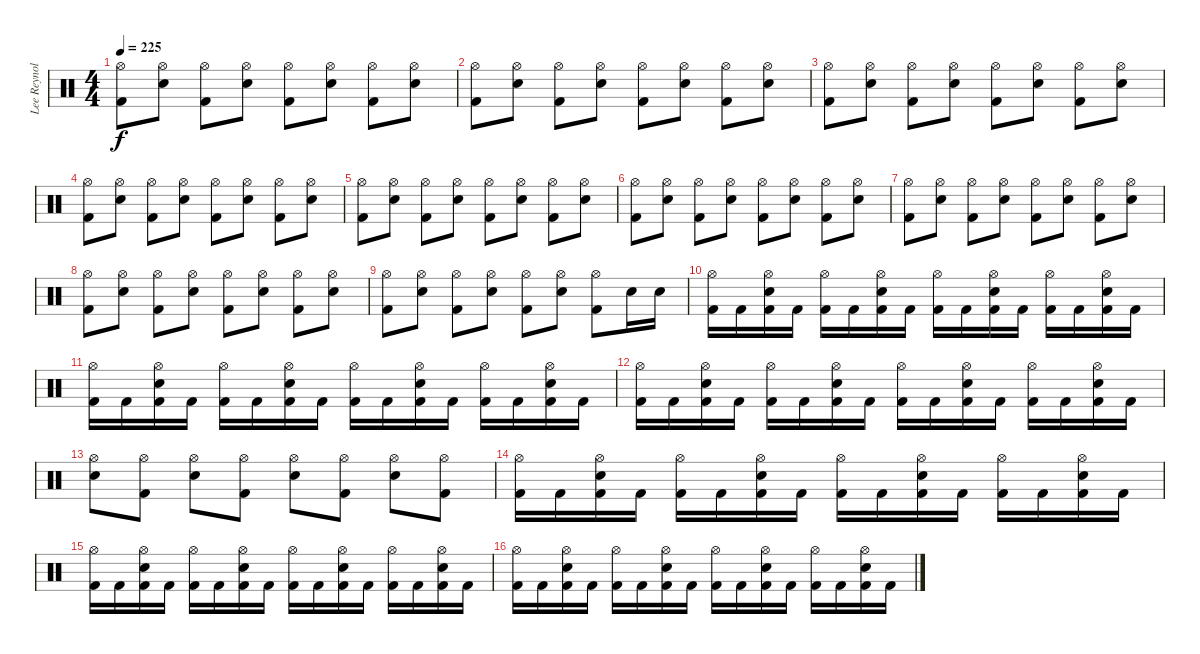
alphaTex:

\track ("Lee Reynolds" "Lee Reynol") {instrument percussion}
\staff {score}
\articulation defaults
\ts (4 4)
\tempo 225
\clef neutral
\ks c
("Hi-Hat (open)" "Kick (hit) 2").8{dy f} ("Hi-Hat (open)" "Snare (hit) 2").8 ("Hi-Hat (open)" "Kick (hit) 2").8 ("Hi-Hat (open)" "Snare (hit) 2").8 ("Hi-Hat (open)" "Kick (hit) 2").8 ("Hi-Hat (open)" "Snare (hit) 2").8 ("Hi-Hat (open)" "Kick (hit) 2").8 ("Hi-Hat (open)" "Snare (hit) 2").8 |
("Hi-Hat (open)" "Kick (hit) 2").8 ("Hi-Hat (open)" "Snare (hit) 2").8 ("Hi-Hat (open)" "Kick (hit) 2").8 ("Hi-Hat (open)" "Snare (hit) 2").8 ("Hi-Hat (open)" "Kick (hit) 2").8 ("Hi-Hat (open)" "Snare (hit) 2").8 ("Hi-Hat (open)" "Kick (hit) 2").8 ("Hi-Hat (open)" "Snare (hit) 2").8 |
("Hi-Hat (open)" "Kick (hit) 2").8 ("Hi-Hat (open)" "Snare (hit) 2").8 ("Hi-Hat (open)" "Kick (hit) 2").8 ("Hi-Hat (open)" "Snare (hit) 2").8 ("Hi-Hat (open)" "Kick (hit) 2").8 ("Hi-Hat (open)" "Snare (hit) 2").8 ("Hi-Hat (open)" "Kick (hit) 2").8 ("Hi-Hat (open)" "Snare (hit) 2").8 |
("Hi-Hat (open)" "Kick (hit) 2").8 ("Hi-Hat (open)" "Snare (hit) 2").8 ("Hi-Hat (open)" "Kick (hit) 2").8 ("Hi-Hat (open)" "Snare (hit) 2").8 ("Hi-Hat (open)" "Kick (hit) 2").8 ("Hi-Hat (open)" "Snare (hit) 2").8 ("Hi-Hat (open)" "Kick (hit) 2").8 ("Hi-Hat (open)" "Snare (hit) 2").8 |
("Hi-Hat (open)" "Kick (hit) 2").8 ("Hi-Hat (open)" "Snare (hit) 2").8 ("Hi-Hat (open)" "Kick (hit) 2").8 ("Hi-Hat (open)" "Snare (hit) 2").8 ("Hi-Hat (open)" "Kick (hit) 2").8 ("Hi-Hat (open)" "Snare (hit) 2").8 ("Hi-Hat (open)" "Kick (hit) 2").8 ("Hi-Hat (open)" "Snare (hit) 2").8 |
("Hi-Hat (open)" "Kick (hit) 2").8 ("Hi-Hat (open)" "Snare (hit) 2").8 ("Hi-Hat (open)" "Kick (hit) 2").8 ("Hi-Hat (open)" "Snare (hit) 2").8 ("Hi-Hat (open)" "Kick (hit) 2").8 ("Hi-Hat (open)" "Snare (hit) 2").8 ("Hi-Hat (open)" "Kick (hit) 2").8 ("Hi-Hat (open)" "Snare (hit) 2").8 |
("Hi-Hat (open)" "Kick (hit) 2").8 ("Hi-Hat (open)" "Snare (hit) 2").8 ("Hi-Hat (open)" "Kick (hit) 2").8 ("Hi-Hat (open)" "Snare (hit) 2").8 ("Hi-Hat (open)" "Kick (hit) 2").8 ("Hi-Hat (open)" "Snare (hit) 2").8 ("Hi-Hat (open)" "Kick (hit) 2").8 ("Hi-Hat (open)" "Snare (hit) 2").8 |
("Hi-Hat (open)" "Kick (hit) 2").8 ("Hi-Hat (open)" "Snare (hit) 2").8 ("Hi-Hat (open)" "Kick (hit) 2").8 ("Hi-Hat (open)" "Snare (hit) 2").8 ("Hi-Hat (open)" "Kick (hit) 2").8 ("Hi-Hat (open)" "Snare (hit) 2").8 ("Hi-Hat (open)" "Kick (hit) 2").8 ("Hi-Hat (open)" "Snare (hit) 2").8 |
("Hi-Hat (open)" "Kick (hit) 2").8 ("Hi-Hat (open)" "Snare (hit) 2").8 ("Hi-Hat (open)" "Kick (hit) 2").8 ("Hi-Hat (open)" "Snare (hit) 2").8 ("Hi-Hat (open)" "Kick (hit) 2").8 ("Hi-Hat (open)" "Snare (hit) 2").8 ("Hi-Hat (open)" "Kick (hit) 2").8 "Snare (hit) 2".16 "Snare (hit) 2".16 |
("Hi-Hat (open)" "Kick (hit) 2").16 "Kick (hit) 2".16 ("Hi-Hat (open)" "Snare (hit) 2" "Kick (hit) 2").16 "Kick (hit) 2".16 ("Hi-Hat (open)" "Kick (hit) 2").16 "Kick (hit) 2".16 ("Hi-Hat (open)" "Snare (hit) 2" "Kick (hit) 2").16 "Kick (hit) 2".16 ("Hi-Hat (open)" "Kick (hit) 2").16 "Kick (hit) 2".16 ("Hi-Hat (open)" "Snare (hit) 2" "Kick (hit) 2").16 "Kick (hit) 2".16 ("Hi-Hat (open)" "Kick (hit) 2").16 "Kick (hit) 2".16 ("Hi-Hat (open)" "Snare (hit) 2" "Kick (hit) 2").16 "Kick (hit) 2".16 |
("Hi-Hat (open)" "Kick (hit) 2").16 "Kick (hit) 2".16 ("Hi-Hat (open)" "Snare (hit) 2" "Kick (hit) 2").16 "Kick (hit) 2".16 ("Hi-Hat (open)" "Kick (hit) 2").16 "Kick (hit) 2".16 ("Hi-Hat (open)" "Snare (hit) 2" "Kick (hit) 2").16 "Kick (hit) 2".16 ("Hi-Hat (open)" "Kick (hit) 2").16 "Kick (hit) 2".16 ("Hi-Hat (open)" "Snare (hit) 2" "Kick (hit) 2").16 "Kick (hit) 2".16 ("Hi-Hat (open)" "Kick (hit) 2").16 "Kick (hit) 2".16 ("Hi-Hat (open)" "Snare (hit) 2" "Kick (hit) 2").16 "Kick (hit) 2".16 |
("Hi-Hat (open)" "Kick (hit) 2").16 "Kick (hit) 2".16 ("Hi-Hat (open)" "Snare (hit) 2" "Kick (hit) 2").16 "Kick (hit) 2".16 ("Hi-Hat (open)" "Kick (hit) 2").16 "Kick (hit) 2".16 ("Hi-Hat (open)" "Snare (hit) 2" "Kick (hit) 2").16 "Kick (hit) 2".16 ("Hi-Hat (open)" "Kick (hit) 2").16 "Kick (hit) 2".16 ("Hi-Hat (open)" "Snare (hit) 2" "Kick (hit) 2").16 "Kick (hit) 2".16 ("Hi-Hat (open)" "Kick (hit) 2").16 "Kick (hit) 2".16 ("Hi-Hat (open)" "Snare (hit) 2" "Kick (hit) 2").16 "Kick (hit) 2".16 |
("Hi-Hat (open)" "Snare (hit) 2").8 ("Hi-Hat (open)" "Kick (hit) 2").8 ("Hi-Hat (open)" "Snare (hit) 2").8 ("Hi-Hat (open)" "Kick (hit) 2").8 ("Hi-Hat (open)" "Snare (hit) 2").8 ("Hi-Hat (open)" "Kick (hit) 2").8 ("Hi-Hat (open)" "Snare (hit) 2").8 ("Hi-Hat (open)" "Kick (hit) 2").8 |
("Hi-Hat (open)" "Kick (hit) 2").16 "Kick (hit) 2".16 ("Hi-Hat (open)" "Snare (hit) 2" "Kick (hit) 2").16 "Kick (hit) 2".16 ("Hi-Hat (open)" "Kick (hit) 2").16 "Kick (hit) 2".16 ("Hi-Hat (open)" "Snare (hit) 2" "Kick (hit) 2").16 "Kick (hit) 2".16 ("Hi-Hat (open)" "Kick (hit) 2").16 "Kick (hit) 2".16 ("Hi-Hat (open)" "Snare (hit) 2" "Kick (hit) 2").16 "Kick (hit) 2".16 ("Hi-Hat (open)" "Kick (hit) 2").16 "Kick (hit) 2".16 ("Hi-Hat (open)" "Snare (hit) 2" "Kick (hit) 2").16 "Kick (hit) 2".16 |
("Hi-Hat (open)" "Kick (hit) 2").16 "Kick (hit) 2".16 ("Hi-Hat (open)" "Snare (hit) 2" "Kick (hit) 2").16 "Kick (hit) 2".16 ("Hi-Hat (open)" "Kick (hit) 2").16 "Kick (hit) 2".16 ("Hi-Hat (open)" "Snare (hit) 2" "Kick (hit) 2").16 "Kick (hit) 2".16 ("Hi-Hat (open)" "Kick (hit) 2").16 "Kick (hit) 2".16 ("Hi-Hat (open)" "Snare (hit) 2" "Kick (hit) 2").16 "Kick (hit) 2".16 ("Hi-Hat (open)" "Kick (hit) 2").16 "Kick (hit) 2".16 ("Hi-Hat (open)" "Snare (hit) 2" "Kick (hit) 2").16 "Kick (hit) 2".16 |
("Hi-Hat (open)" "Kick (hit) 2").16 "Kick (hit) 2".16 ("Hi-Hat (open)" "Snare (hit) 2" "Kick (hit) 2").16 "Kick (hit) 2".16 ("Hi-Hat (open)" "Kick (hit) 2").16 "Kick (hit) 2".16 ("Hi-Hat (open)" "Snare (hit) 2" "Kick (hit) 2").16 "Kick (hit) 2".16 ("Hi-Hat (open)" "Kick (hit) 2").16 "Kick (hit) 2".16 ("Hi-Hat (open)" "Snare (hit) 2" "Kick (hit) 2").16 "Kick (hit) 2".16 ("Hi-Hat (open)" "Kick (hit) 2").16 "Kick (hit) 2".16 ("Hi-Hat (open)" "Snare (hit) 2" "Kick (hit) 2").16 "Kick (hit) 2".16
